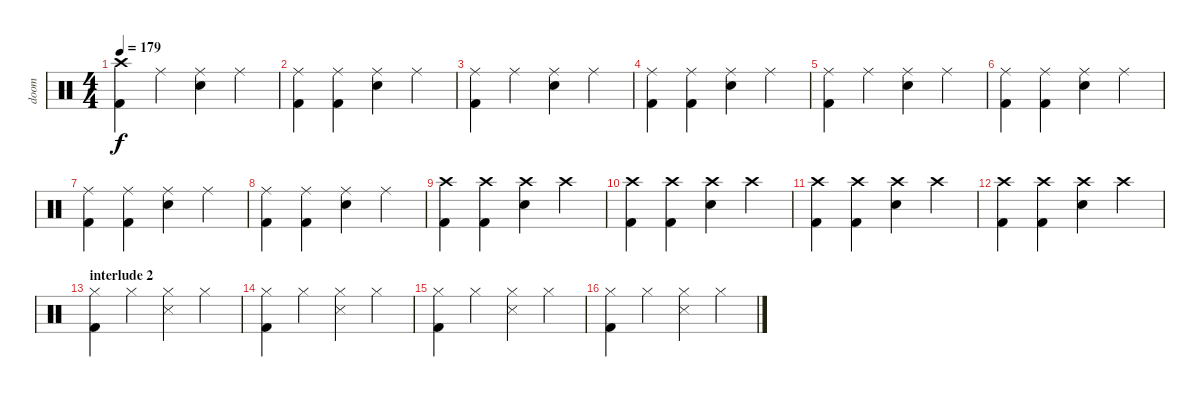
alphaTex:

\track ("doom" "doom") {instrument percussion}
\staff {score}
\articulation defaults
\ts (4 4)
\tempo 179
\clef neutral
\ks c
("Crash high (hit)" "Kick (hit) 2").4{dy f} "Ride (middle)".4 ("Ride (middle)" "Snare (hit) 2").4 "Ride (middle)".4 |
("Ride (middle)" "Kick (hit) 2").4 ("Ride (middle)" "Kick (hit) 2").4 ("Ride (middle)" "Snare (hit) 2").4 "Ride (middle)".4 |
("Ride (middle)" "Kick (hit) 2").4 "Ride (middle)".4 ("Ride (middle)" "Snare (hit) 2").4 "Ride (middle)".4 |
("Ride (middle)" "Kick (hit) 2").4 ("Ride (middle)" "Kick (hit) 2").4 ("Ride (middle)" "Snare (hit) 2").4 "Ride (middle)".4 |
("Ride (middle)" "Kick (hit) 2").4 "Ride (middle)".4 ("Ride (middle)" "Snare (hit) 2").4 "Ride (middle)".4 |
("Ride (middle)" "Kick (hit) 2").4 ("Ride (middle)" "Kick (hit) 2").4 ("Ride (middle)" "Snare (hit) 2").4 "Ride (middle)".4 |
("Ride (middle)" "Kick (hit) 2").4 ("Ride (middle)" "Kick (hit) 2").4 ("Ride (middle)" "Snare (hit) 2").4 "Ride (middle)".4 |
("Ride (middle)" "Kick (hit) 2").4 ("Ride (middle)" "Kick (hit) 2").4 ("Ride (middle)" "Snare (hit) 2").4 "Ride (middle)".4 |
("Crash high (hit)" "Kick (hit) 2").4 ("Crash high (hit)" "Kick (hit) 2").4 ("Crash high (hit)" "Snare (hit) 2").4 "Crash high (hit)".4 |
("Crash high (hit)" "Kick (hit) 2").4 ("Crash high (hit)" "Kick (hit) 2").4 ("Crash high (hit)" "Snare (hit) 2").4 "Crash high (hit)".4 |
("Crash high (hit)" "Kick (hit) 2").4 ("Crash high (hit)" "Kick (hit) 2").4 ("Crash high (hit)" "Snare (hit) 2").4 "Crash high (hit)".4 |
("Crash high (hit)" "Kick (hit) 2").4 ("Crash high (hit)" "Kick (hit) 2").4 ("Crash high (hit)" "Snare (hit) 2").4 "Crash high (hit)".4 |
\section ("" "interlude 2")
("Hi-Hat (closed)" "Kick (hit) 2").4 "Hi-Hat (closed)".4 ("Hi-Hat (closed)" "Snare (side stick) 3").4 "Hi-Hat (closed)".4 |
("Hi-Hat (closed)" "Kick (hit) 2").4 "Hi-Hat (closed)".4 ("Hi-Hat (closed)" "Snare (side stick) 3").4 "Hi-Hat (closed)".4 |
("Hi-Hat (closed)" "Kick (hit) 2").4 "Hi-Hat (closed)".4 ("Hi-Hat (closed)" "Snare (side stick) 3").4 "Hi-Hat (closed)".4 |
("Hi-Hat (closed)" "Kick (hit) 2").4 "Hi-Hat (closed)".4 ("Hi-Hat (closed)" "Snare (side stick) 3").4 "Hi-Hat (closed)".4
